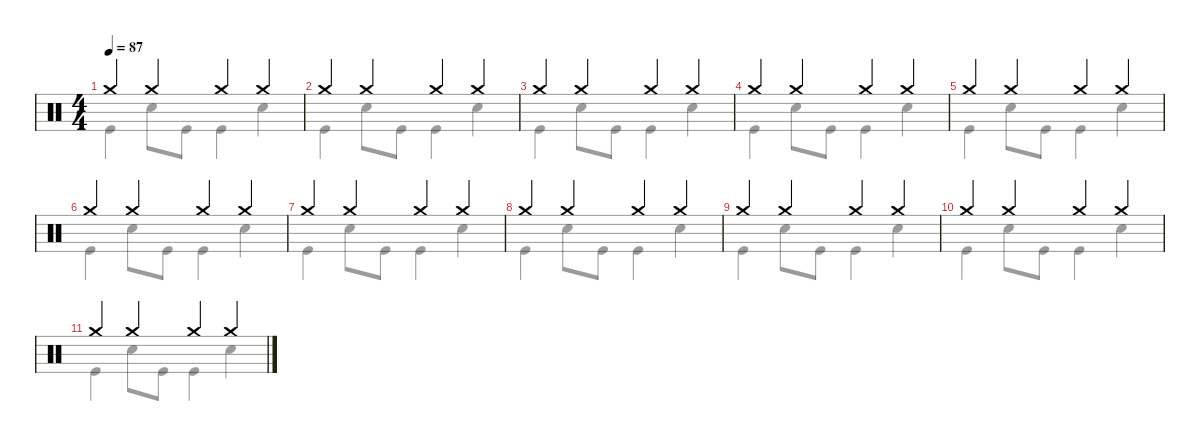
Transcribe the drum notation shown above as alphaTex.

\defaultSystemsLayout 4
\hideDynamics
\bracketExtendMode nobrackets
\singleTrackTrackNamePolicy hidden
\multiTrackTrackNamePolicy hidden
\firstSystemTrackNameMode fullname
\otherSystemsTrackNameOrientation horizontal
\track ("Drums" "drm.") {instrument percussion}
\staff {score}
\articulation defaults
\voice
\ts (4 4)
\tempo 87
\clef neutral
\ks c "Crash medium (hit)".4{dy f beam Up} "Crash medium (hit)".4{beam Up} "Crash medium (hit)".4{beam Up} "Crash medium (hit)".4{beam Up}
|
"Crash medium (hit)".4{beam Up} "Crash medium (hit)".4{beam Up} "Crash medium (hit)".4{beam Up} "Crash medium (hit)".4{beam Up} |
"Crash medium (hit)".4{beam Up} "Crash medium (hit)".4{beam Up} "Crash medium (hit)".4{beam Up} "Crash medium (hit)".4{beam Up} |
"Crash medium (hit)".4{beam Up} "Crash medium (hit)".4{beam Up} "Crash medium (hit)".4{beam Up} "Crash medium (hit)".4{beam Up} |
"Crash medium (hit)".4{beam Up} "Crash medium (hit)".4{beam Up} "Crash medium (hit)".4{beam Up} "Crash medium (hit)".4{beam Up} |
"Crash medium (hit)".4{beam Up} "Crash medium (hit)".4{beam Up} "Crash medium (hit)".4{beam Up} "Crash medium (hit)".4{beam Up} |
"Crash medium (hit)".4{beam Up} "Crash medium (hit)".4{beam Up} "Crash medium (hit)".4{beam Up} "Crash medium (hit)".4{beam Up} |
"Crash medium (hit)".4{beam Up} "Crash medium (hit)".4{beam Up} "Crash medium (hit)".4{beam Up} "Crash medium (hit)".4{beam Up} |
"Crash medium (hit)".4{beam Up} "Crash medium (hit)".4{beam Up} "Crash medium (hit)".4{beam Up} "Crash medium (hit)".4{beam Up} |
"Crash medium (hit)".4{beam Up} "Crash medium (hit)".4{beam Up} "Crash medium (hit)".4{beam Up} "Crash medium (hit)".4{beam Up} |
"Crash medium (hit)".4{beam Up} "Crash medium (hit)".4{beam Up} "Crash medium (hit)".4{beam Up} "Crash medium (hit)".4{beam Up}
\voice
\clef neutral
\ottava regular
\simile none
\ks c "Kick (hit)".4{dy f beam Down} "Snare (hit) 2".8{beam Down} "Kick (hit)".8{beam Down} "Kick (hit)".4{beam Down} "Snare (hit) 2".4{beam Down}
|
"Kick (hit)".4{beam Down} "Snare (hit) 2".8{beam Down} "Kick (hit)".8{beam Down} "Kick (hit)".4{beam Down} "Snare (hit) 2".4{beam Down} |
"Kick (hit)".4{beam Down} "Snare (hit) 2".8{beam Down} "Kick (hit)".8{beam Down} "Kick (hit)".4{beam Down} "Snare (hit) 2".4{beam Down} |
"Kick (hit)".4{beam Down} "Snare (hit) 2".8{beam Down} "Kick (hit)".8{beam Down} "Kick (hit)".4{beam Down} "Snare (hit) 2".4{beam Down} |
"Kick (hit)".4{beam Down} "Snare (hit) 2".8{beam Down} "Kick (hit)".8{beam Down} "Kick (hit)".4{beam Down} "Snare (hit) 2".4{beam Down} |
"Kick (hit)".4{beam Down} "Snare (hit) 2".8{beam Down} "Kick (hit)".8{beam Down} "Kick (hit)".4{beam Down} "Snare (hit) 2".4{beam Down} |
"Kick (hit)".4{beam Down} "Snare (hit) 2".8{beam Down} "Kick (hit)".8{beam Down} "Kick (hit)".4{beam Down} "Snare (hit) 2".4{beam Down} |
"Kick (hit)".4{beam Down} "Snare (hit) 2".8{beam Down} "Kick (hit)".8{beam Down} "Kick (hit)".4{beam Down} "Snare (hit) 2".4{beam Down} |
"Kick (hit)".4{beam Down} "Snare (hit) 2".8{beam Down} "Kick (hit)".8{beam Down} "Kick (hit)".4{beam Down} "Snare (hit) 2".4{beam Down} |
"Kick (hit)".4{beam Down} "Snare (hit) 2".8{beam Down} "Kick (hit)".8{beam Down} "Kick (hit)".4{beam Down} "Snare (hit) 2".4{beam Down} |
"Kick (hit)".4{beam Down} "Snare (hit) 2".8{beam Down} "Kick (hit)".8{beam Down} "Kick (hit)".4{beam Down} "Snare (hit) 2".4{beam Down}
